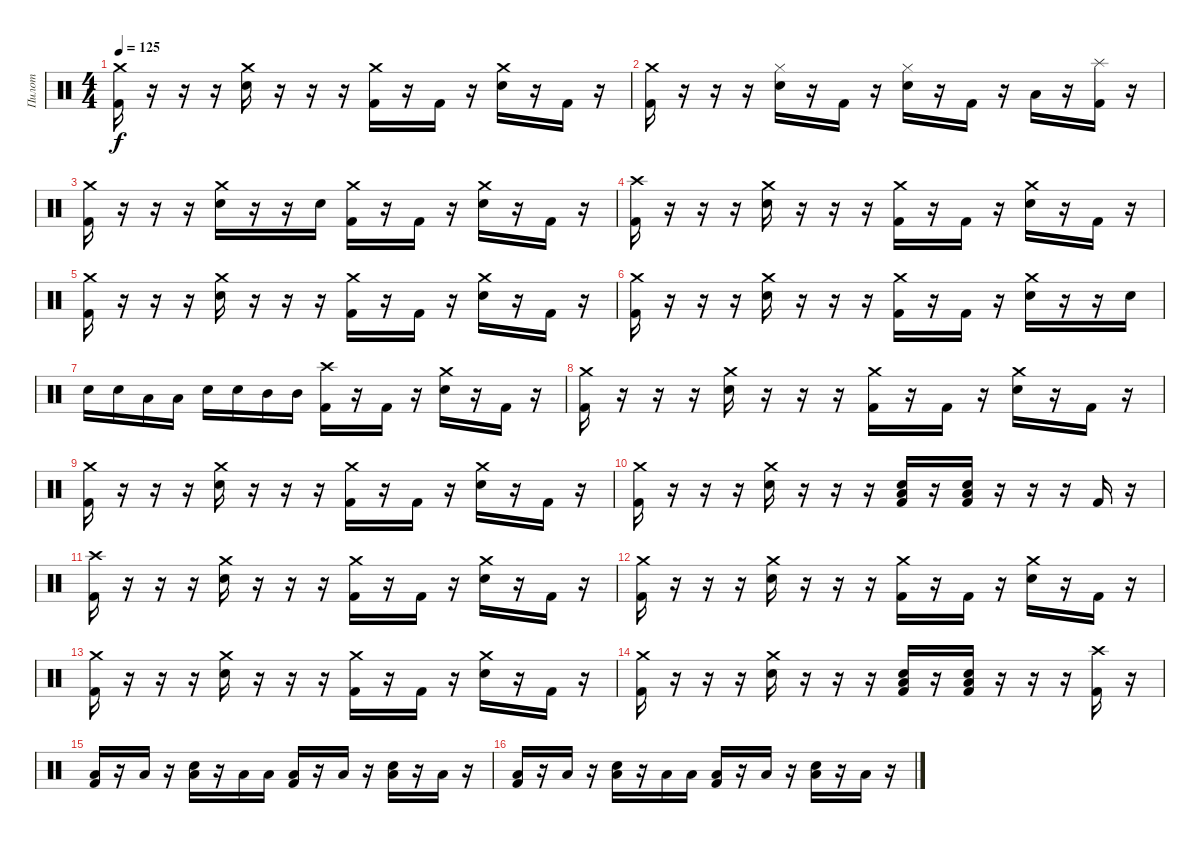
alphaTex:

\track ("Пилот" "Пилот") {instrument percussion}
\staff {score}
\articulation defaults
\ts (4 4)
\tempo 125
\clef neutral
\ks c
("Crash medium (hit)" "Kick (hit) 2").16{dy f} r.16 r.16 r.16 ("Crash medium (hit)" "Electric Snare (hit)").16 r.16 r.16 r.16 ("Crash medium (hit)" "Kick (hit) 2").16 r.16 "Kick (hit) 2".16 r.16 ("Crash medium (hit)" "Electric Snare (hit)").16 r.16 "Kick (hit) 2".16 r.16 |
("Crash medium (hit)" "Kick (hit) 2").16 r.16 r.16 r.16 ("Hi-Hat (closed)" "Electric Snare (hit)").16 r.16 "Kick (hit) 2".16 r.16 ("Hi-Hat (closed)" "Electric Snare (hit)").16 r.16 "Kick (hit) 2".16 r.16 "Low Floor Tom (hit)".16 r.16 ("Splash (hit)" "Kick (hit) 2").16 r.16 |
("Crash medium (hit)" "Kick (hit) 2").16 r.16 r.16 r.16 ("Crash medium (hit)" "Electric Snare (hit)").16 r.16 r.16 "Electric Snare (hit)".16 ("Crash medium (hit)" "Kick (hit) 2").16 r.16 "Kick (hit) 2".16 r.16 ("Crash medium (hit)" "Electric Snare (hit)").16 r.16 "Kick (hit) 2".16 r.16 |
("Crash high (hit)" "Kick (hit) 2").16 r.16 r.16 r.16 ("Crash medium (hit)" "Electric Snare (hit)").16 r.16 r.16 r.16 ("Crash medium (hit)" "Kick (hit) 2").16 r.16 "Kick (hit) 2".16 r.16 ("Crash medium (hit)" "Electric Snare (hit)").16 r.16 "Kick (hit) 2".16 r.16 |
("Crash medium (hit)" "Kick (hit) 2").16 r.16 r.16 r.16 ("Crash medium (hit)" "Electric Snare (hit)").16 r.16 r.16 r.16 ("Crash medium (hit)" "Kick (hit) 2").16 r.16 "Kick (hit) 2".16 r.16 ("Crash medium (hit)" "Electric Snare (hit)").16 r.16 "Kick (hit) 2".16 r.16 |
("Crash medium (hit)" "Kick (hit) 2").16 r.16 r.16 r.16 ("Crash medium (hit)" "Electric Snare (hit)").16 r.16 r.16 r.16 ("Crash medium (hit)" "Kick (hit) 2").16 r.16 "Kick (hit) 2".16 r.16 ("Crash medium (hit)" "Electric Snare (hit)").16 r.16 r.16 "Electric Snare (hit)".16 |
"Electric Snare (hit)".16 "Electric Snare (hit)".16 "Low Tom (hit)".16 "Low Tom (hit)".16 "Electric Snare (hit)".16 "Electric Snare (hit)".16 "Mid Tom (hit)".16 "Mid Tom (hit)".16 ("Crash high (hit)" "Kick (hit) 2").16 r.16 "Kick (hit) 2".16 r.16 ("Crash medium (hit)" "Electric Snare (hit)").16 r.16 "Kick (hit) 2".16 r.16 |
("Crash medium (hit)" "Kick (hit) 2").16 r.16 r.16 r.16 ("Crash medium (hit)" "Electric Snare (hit)").16 r.16 r.16 r.16 ("Crash medium (hit)" "Kick (hit) 2").16 r.16 "Kick (hit) 2".16 r.16 ("Crash medium (hit)" "Electric Snare (hit)").16 r.16 "Kick (hit) 2".16 r.16 |
("Crash medium (hit)" "Kick (hit) 2").16 r.16 r.16 r.16 ("Crash medium (hit)" "Electric Snare (hit)").16 r.16 r.16 r.16 ("Crash medium (hit)" "Kick (hit) 2").16 r.16 "Kick (hit) 2".16 r.16 ("Crash medium (hit)" "Electric Snare (hit)").16 r.16 "Kick (hit) 2".16 r.16 |
("Crash medium (hit)" "Kick (hit) 2").16 r.16 r.16 r.16 ("Crash medium (hit)" "Electric Snare (hit)").16 r.16 r.16 r.16 ("Low Floor Tom (hit)" "Electric Snare (hit)" "Kick (hit) 2").16 r.16 ("Low Floor Tom (hit)" "Electric Snare (hit)" "Kick (hit) 2").16 r.16 r.16 r.16 "Kick (hit) 2".16 r.16 |
("Crash high (hit)" "Kick (hit) 2").16 r.16 r.16 r.16 ("Crash medium (hit)" "Electric Snare (hit)").16 r.16 r.16 r.16 ("Crash medium (hit)" "Kick (hit) 2").16 r.16 "Kick (hit) 2".16 r.16 ("Crash medium (hit)" "Electric Snare (hit)").16 r.16 "Kick (hit) 2".16 r.16 |
("Crash medium (hit)" "Kick (hit) 2").16 r.16 r.16 r.16 ("Crash medium (hit)" "Electric Snare (hit)").16 r.16 r.16 r.16 ("Crash medium (hit)" "Kick (hit) 2").16 r.16 "Kick (hit) 2".16 r.16 ("Crash medium (hit)" "Electric Snare (hit)").16 r.16 "Kick (hit) 2".16 r.16 |
("Crash medium (hit)" "Kick (hit) 2").16 r.16 r.16 r.16 ("Crash medium (hit)" "Electric Snare (hit)").16 r.16 r.16 r.16 ("Crash medium (hit)" "Kick (hit) 2").16 r.16 "Kick (hit) 2".16 r.16 ("Crash medium (hit)" "Electric Snare (hit)").16 r.16 "Kick (hit) 2".16 r.16 |
("Crash medium (hit)" "Kick (hit) 2").16 r.16 r.16 r.16 ("Crash medium (hit)" "Electric Snare (hit)").16 r.16 r.16 r.16 ("Low Floor Tom (hit)" "Electric Snare (hit)" "Kick (hit) 2").16 r.16 ("Low Floor Tom (hit)" "Electric Snare (hit)" "Kick (hit) 2").16 r.16 r.16 r.16 ("Crash high (hit)" "Kick (hit) 2").16 r.16 |
("Low Tom (hit)" "Kick (hit) 2").16 r.16 "Low Floor Tom (hit)".16 r.16 ("Low Floor Tom (hit)" "Electric Snare (hit)").16 r.16 "Low Floor Tom (hit)".16 "Low Tom (hit)".16 ("Low Floor Tom (hit)" "Kick (hit) 2").16 r.16 "Low Floor Tom (hit)".16 r.16 ("Low Floor Tom (hit)" "Electric Snare (hit)").16 r.16 "Low Floor Tom (hit)".16 r.16 |
("Low Tom (hit)" "Kick (hit) 2").16 r.16 "Low Floor Tom (hit)".16 r.16 ("Low Floor Tom (hit)" "Electric Snare (hit)").16 r.16 "Low Floor Tom (hit)".16 "Low Tom (hit)".16 ("Low Floor Tom (hit)" "Kick (hit) 2").16 r.16 "Low Floor Tom (hit)".16 r.16 ("Low Floor Tom (hit)" "Electric Snare (hit)").16 r.16 "Low Floor Tom (hit)".16 r.16
